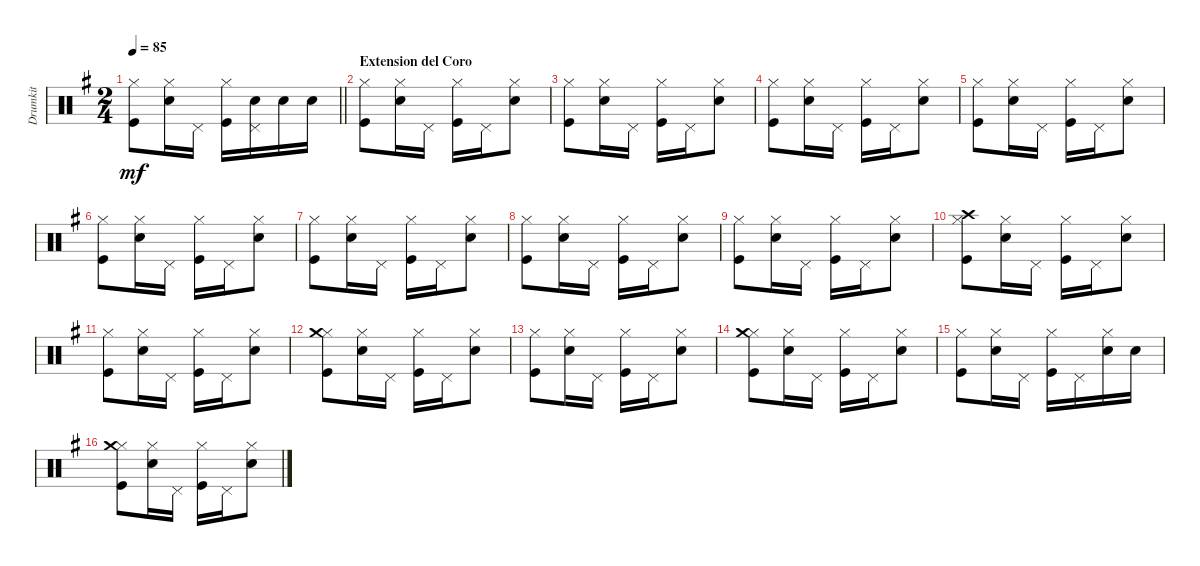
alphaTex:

\track ("Drumkit" "Drumkit") {instrument percussion}
\staff {score}
\articulation defaults
\ts (2 4)
\tempo 85
\clef neutral
\barLineRight lightlight
\ks g
("Kick (hit)" "Hi-Hat (closed)").8{dy mf} ("Snare (hit) 2" "Hi-Hat (closed)").16 "Pedal Hi-Hat (hit)".16 ("Kick (hit)" "Hi-Hat (closed)").16 ("Pedal Hi-Hat (hit)" "Snare (hit) 2").16 "Snare (hit) 2".16 "Snare (hit) 2".16 |
\section ("" "Extension del Coro")
("Kick (hit)" "Hi-Hat (closed)").8 ("Snare (hit) 2" "Hi-Hat (closed)").16 "Pedal Hi-Hat (hit)".16 ("Kick (hit)" "Hi-Hat (closed)").16 "Pedal Hi-Hat (hit)".16 ("Snare (hit) 2" "Hi-Hat (closed)").8 |
("Kick (hit)" "Hi-Hat (closed)").8 ("Snare (hit) 2" "Hi-Hat (closed)").16 "Pedal Hi-Hat (hit)".16 ("Kick (hit)" "Hi-Hat (closed)").16 "Pedal Hi-Hat (hit)".16 ("Snare (hit) 2" "Hi-Hat (closed)").8 |
("Kick (hit)" "Hi-Hat (closed)").8 ("Snare (hit) 2" "Hi-Hat (closed)").16 "Pedal Hi-Hat (hit)".16 ("Kick (hit)" "Hi-Hat (closed)").16 "Pedal Hi-Hat (hit)".16 ("Snare (hit) 2" "Hi-Hat (closed)").8 |
("Kick (hit)" "Hi-Hat (closed)").8 ("Snare (hit) 2" "Hi-Hat (closed)").16 "Pedal Hi-Hat (hit)".16 ("Kick (hit)" "Hi-Hat (closed)").16 "Pedal Hi-Hat (hit)".16 ("Snare (hit) 2" "Hi-Hat (closed)").8 |
("Kick (hit)" "Hi-Hat (closed)").8 ("Snare (hit) 2" "Hi-Hat (closed)").16 "Pedal Hi-Hat (hit)".16 ("Kick (hit)" "Hi-Hat (closed)").16 "Pedal Hi-Hat (hit)".16 ("Snare (hit) 2" "Hi-Hat (closed)").8 |
("Kick (hit)" "Hi-Hat (closed)").8 ("Snare (hit) 2" "Hi-Hat (closed)").16 "Pedal Hi-Hat (hit)".16 ("Kick (hit)" "Hi-Hat (closed)").16 "Pedal Hi-Hat (hit)".16 ("Snare (hit) 2" "Hi-Hat (closed)").8 |
("Kick (hit)" "Hi-Hat (closed)").8 ("Snare (hit) 2" "Hi-Hat (closed)").16 "Pedal Hi-Hat (hit)".16 ("Kick (hit)" "Hi-Hat (closed)").16 "Pedal Hi-Hat (hit)".16 ("Snare (hit) 2" "Hi-Hat (closed)").8 |
("Kick (hit)" "Hi-Hat (closed)").8 ("Snare (hit) 2" "Hi-Hat (closed)").16 "Pedal Hi-Hat (hit)".16 ("Kick (hit)" "Hi-Hat (closed)").16 "Pedal Hi-Hat (hit)".16 ("Snare (hit) 2" "Hi-Hat (closed)").8 |
("Kick (hit)" "Hi-Hat (closed)" "Crash high (hit)").8 ("Snare (hit) 2" "Hi-Hat (closed)").16 "Pedal Hi-Hat (hit)".16 ("Kick (hit)" "Hi-Hat (closed)").16 "Pedal Hi-Hat (hit)".16 ("Snare (hit) 2" "Hi-Hat (closed)").8 |
("Kick (hit)" "Hi-Hat (closed)").8 ("Snare (hit) 2" "Hi-Hat (closed)").16 "Pedal Hi-Hat (hit)".16 ("Kick (hit)" "Hi-Hat (closed)").16 "Pedal Hi-Hat (hit)".16 ("Snare (hit) 2" "Hi-Hat (closed)").8 |
("Kick (hit)" "Hi-Hat (closed)" "Crash medium (hit)").8 ("Snare (hit) 2" "Hi-Hat (closed)").16 "Pedal Hi-Hat (hit)".16 ("Kick (hit)" "Hi-Hat (closed)").16 "Pedal Hi-Hat (hit)".16 ("Snare (hit) 2" "Hi-Hat (closed)").8 |
("Kick (hit)" "Hi-Hat (closed)").8 ("Snare (hit) 2" "Hi-Hat (closed)").16 "Pedal Hi-Hat (hit)".16 ("Kick (hit)" "Hi-Hat (closed)").16 "Pedal Hi-Hat (hit)".16 ("Snare (hit) 2" "Hi-Hat (closed)").8 |
("Kick (hit)" "Hi-Hat (closed)" "Crash medium (hit)").8 ("Snare (hit) 2" "Hi-Hat (closed)").16 "Pedal Hi-Hat (hit)".16 ("Kick (hit)" "Hi-Hat (closed)").16 "Pedal Hi-Hat (hit)".16 ("Snare (hit) 2" "Hi-Hat (closed)").8 |
("Kick (hit)" "Hi-Hat (closed)").8 ("Snare (hit) 2" "Hi-Hat (closed)").16 "Pedal Hi-Hat (hit)".16 ("Kick (hit)" "Hi-Hat (closed)").16 "Pedal Hi-Hat (hit)".16 ("Snare (hit) 2" "Hi-Hat (closed)").16 "Snare (hit) 2".16 |
("Kick (hit)" "Hi-Hat (closed)" "Crash medium (hit)").8 ("Snare (hit) 2" "Hi-Hat (closed)").16 "Pedal Hi-Hat (hit)".16 ("Kick (hit)" "Hi-Hat (closed)").16 "Pedal Hi-Hat (hit)".16 ("Snare (hit) 2" "Hi-Hat (closed)").8
